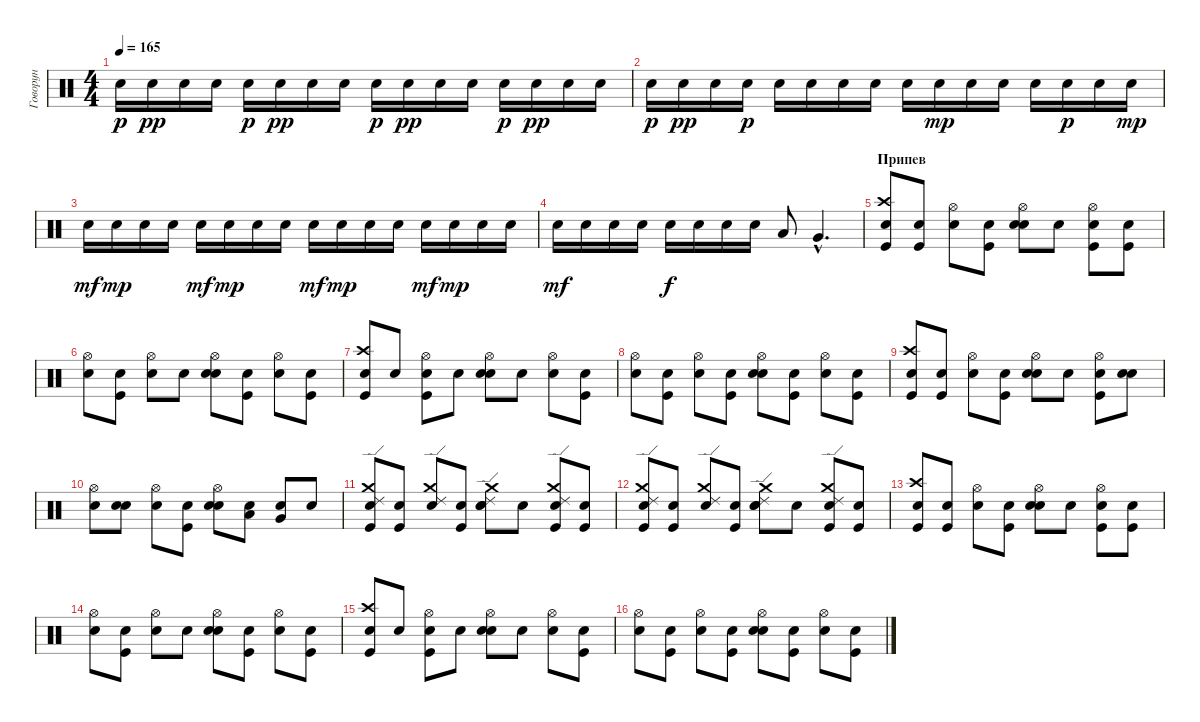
\track ("Говорун" "Говорун") {instrument percussion}
\staff {score}
\articulation defaults
\ts (4 4)
\tempo 165
\clef neutral
\ks c "Snare (hit) 2".16{dy p} "Snare (hit) 2".16{dy pp} "Snare (hit) 2".16 "Snare (hit) 2".16 "Snare (hit) 2".16{dy p} "Snare (hit) 2".16{dy pp} "Snare (hit) 2".16 "Snare (hit) 2".16 "Snare (hit) 2".16{dy p} "Snare (hit) 2".16{dy pp} "Snare (hit) 2".16 "Snare (hit) 2".16 "Snare (hit) 2".16{dy p} "Snare (hit) 2".16{dy pp} "Snare (hit) 2".16 "Snare (hit) 2".16
|
"Snare (hit) 2".16{dy p} "Snare (hit) 2".16{dy pp} "Snare (hit) 2".16 "Snare (hit) 2".16{dy p} "Snare (hit) 2".16 "Snare (hit) 2".16 "Snare (hit) 2".16 "Snare (hit) 2".16 "Snare (hit) 2".16 "Snare (hit) 2".16{dy mp} "Snare (hit) 2".16 "Snare (hit) 2".16 "Snare (hit) 2".16 "Snare (hit) 2".16{dy p} "Snare (hit) 2".16 "Snare (hit) 2".16{dy mp} |
"Snare (hit) 2".16{dy mf} "Snare (hit) 2".16{dy mp} "Snare (hit) 2".16 "Snare (hit) 2".16 "Snare (hit) 2".16{dy mf} "Snare (hit) 2".16{dy mp} "Snare (hit) 2".16 "Snare (hit) 2".16 "Snare (hit) 2".16{dy mf} "Snare (hit) 2".16{dy mp} "Snare (hit) 2".16 "Snare (hit) 2".16 "Snare (hit) 2".16{dy mf} "Snare (hit) 2".16{dy mp} "Snare (hit) 2".16 "Snare (hit) 2".16 |
"Snare (hit) 2".16{dy mf} "Snare (hit) 2".16 "Snare (hit) 2".16 "Snare (hit) 2".16 "Snare (hit) 2".16{dy f} "Snare (hit) 2".16 "Snare (hit) 2".16 "Snare (hit) 2".16 "Low Tom (hit)".8 "Very Low Tom (hit)"{hac}.4{d} |
\section ("" "Припев")
("Crash high (hit)" "Kick (hit)" "Snare (hit)"{x}).8 ("Kick (hit)" "Snare (hit)"{x}).8 ("Hi-Hat (open)" "Snare (hit)"{x}).8 ("Kick (hit)" "Snare (hit)"{x}).8 ("Hi-Hat (open)" "Snare (hit) 2" "Snare (hit)"{x}).8 "Snare (hit)"{x}.8 ("Hi-Hat (open)" "Kick (hit)" "Snare (hit)"{x}).8 ("Kick (hit)" "Snare (hit)"{x}).8 |
("Hi-Hat (open)" "Snare (hit)"{x}).8 ("Kick (hit)" "Snare (hit)"{x}).8 ("Hi-Hat (open)" "Snare (hit)"{x}).8 "Snare (hit)"{x}.8 ("Hi-Hat (open)" "Snare (hit) 2" "Snare (hit)"{x}).8 ("Kick (hit)" "Snare (hit)"{x}).8 ("Hi-Hat (open)" "Snare (hit)"{x}).8 ("Kick (hit)" "Snare (hit)"{x}).8 |
("Crash high (hit)" "Kick (hit)" "Snare (hit)"{x}).8 "Snare (hit)"{x}.8 ("Hi-Hat (open)" "Kick (hit)" "Snare (hit)"{x}).8 "Snare (hit)"{x}.8 ("Hi-Hat (open)" "Snare (hit) 2" "Snare (hit)"{x}).8 "Snare (hit)"{x}.8 ("Hi-Hat (open)" "Snare (hit)"{x}).8 ("Kick (hit)" "Snare (hit)"{x}).8 |
("Hi-Hat (open)" "Snare (hit)"{x}).8 ("Kick (hit)" "Snare (hit)"{x}).8 ("Hi-Hat (open)" "Snare (hit)"{x}).8 ("Kick (hit)" "Snare (hit)"{x}).8 ("Hi-Hat (open)" "Snare (hit) 2" "Snare (hit)"{x}).8 ("Kick (hit)" "Snare (hit)"{x}).8 ("Hi-Hat (open)" "Snare (hit)"{x}).8 ("Kick (hit)" "Snare (hit)"{x}).8 |
("Crash high (hit)" "Kick (hit)" "Snare (hit)"{x}).8 ("Kick (hit)" "Snare (hit)"{x}).8 ("Hi-Hat (open)" "Snare (hit)"{x}).8 ("Kick (hit)" "Snare (hit)"{x}).8 ("Hi-Hat (open)" "Snare (hit) 2" "Snare (hit)"{x}).8 "Snare (hit)"{x}.8 ("Hi-Hat (open)" "Kick (hit)" "Snare (hit)"{x}).8 ("Snare (hit) 2" "Snare (hit)"{x}).8 |
("Hi-Hat (open)" "Snare (hit)"{x}).8 ("Snare (hit) 2" "Snare (hit)"{x}).8 ("Hi-Hat (open)" "Snare (hit)"{x}).8 ("Kick (hit)" "Snare (hit)"{x}).8 ("Hi-Hat (open)" "Snare (hit) 2" "Snare (hit)"{x}).8 ("Low Tom (hit)" "Snare (hit)"{x}).8 ("Very Low Tom (hit)" "Snare (hit)"{x}).8 "Snare (hit)"{x}.8 |
("Crash medium (hit)" "Ride (edge) 2" "Kick (hit)" "Snare (hit)"{x}).8 ("Kick (hit)" "Snare (hit)"{x}).8 ("Crash medium (hit)" "Ride (edge) 2" "Snare (hit)"{x}).8 ("Kick (hit)" "Snare (hit)"{x}).8 ("Crash medium (hit)" "Ride (edge) 2" "Snare (hit) 2" "Snare (hit)"{x}).8 "Snare (hit)"{x}.8 ("Crash medium (hit)" "Ride (edge) 2" "Kick (hit)" "Snare (hit)"{x}).8 ("Kick (hit)" "Snare (hit)"{x}).8 |
("Crash medium (hit)" "Ride (edge) 2" "Kick (hit)" "Snare (hit)"{x}).8 ("Kick (hit)" "Snare (hit)"{x}).8 ("Crash medium (hit)" "Ride (edge) 2" "Snare (hit)"{x}).8 ("Kick (hit)" "Snare (hit)"{x}).8 ("Crash medium (hit)" "Ride (edge) 2" "Snare (hit) 2" "Snare (hit)"{x}).8 "Snare (hit)"{x}.8 ("Crash medium (hit)" "Ride (edge) 2" "Kick (hit)" "Snare (hit)"{x}).8 ("Kick (hit)" "Snare (hit)"{x}).8 |
("Crash high (hit)" "Kick (hit)" "Snare (hit)"{x}).8 ("Kick (hit)" "Snare (hit)"{x}).8 ("Hi-Hat (open)" "Snare (hit)"{x}).8 ("Kick (hit)" "Snare (hit)"{x}).8 ("Hi-Hat (open)" "Snare (hit) 2" "Snare (hit)"{x}).8 "Snare (hit)"{x}.8 ("Hi-Hat (open)" "Kick (hit)" "Snare (hit)"{x}).8 ("Kick (hit)" "Snare (hit)"{x}).8 |
("Hi-Hat (open)" "Snare (hit)"{x}).8 ("Kick (hit)" "Snare (hit)"{x}).8 ("Hi-Hat (open)" "Snare (hit)"{x}).8 "Snare (hit)"{x}.8 ("Hi-Hat (open)" "Snare (hit) 2" "Snare (hit)"{x}).8 ("Kick (hit)" "Snare (hit)"{x}).8 ("Hi-Hat (open)" "Snare (hit)"{x}).8 ("Kick (hit)" "Snare (hit)"{x}).8 |
("Crash high (hit)" "Kick (hit)" "Snare (hit)"{x}).8 "Snare (hit)"{x}.8 ("Hi-Hat (open)" "Kick (hit)" "Snare (hit)"{x}).8 "Snare (hit)"{x}.8 ("Hi-Hat (open)" "Snare (hit) 2" "Snare (hit)"{x}).8 "Snare (hit)"{x}.8 ("Hi-Hat (open)" "Snare (hit)"{x}).8 ("Kick (hit)" "Snare (hit)"{x}).8 |
("Hi-Hat (open)" "Snare (hit)"{x}).8 ("Kick (hit)" "Snare (hit)"{x}).8 ("Hi-Hat (open)" "Snare (hit)"{x}).8 ("Kick (hit)" "Snare (hit)"{x}).8 ("Hi-Hat (open)" "Snare (hit) 2" "Snare (hit)"{x}).8 ("Kick (hit)" "Snare (hit)"{x}).8 ("Hi-Hat (open)" "Snare (hit)"{x}).8 ("Kick (hit)" "Snare (hit)"{x}).8
